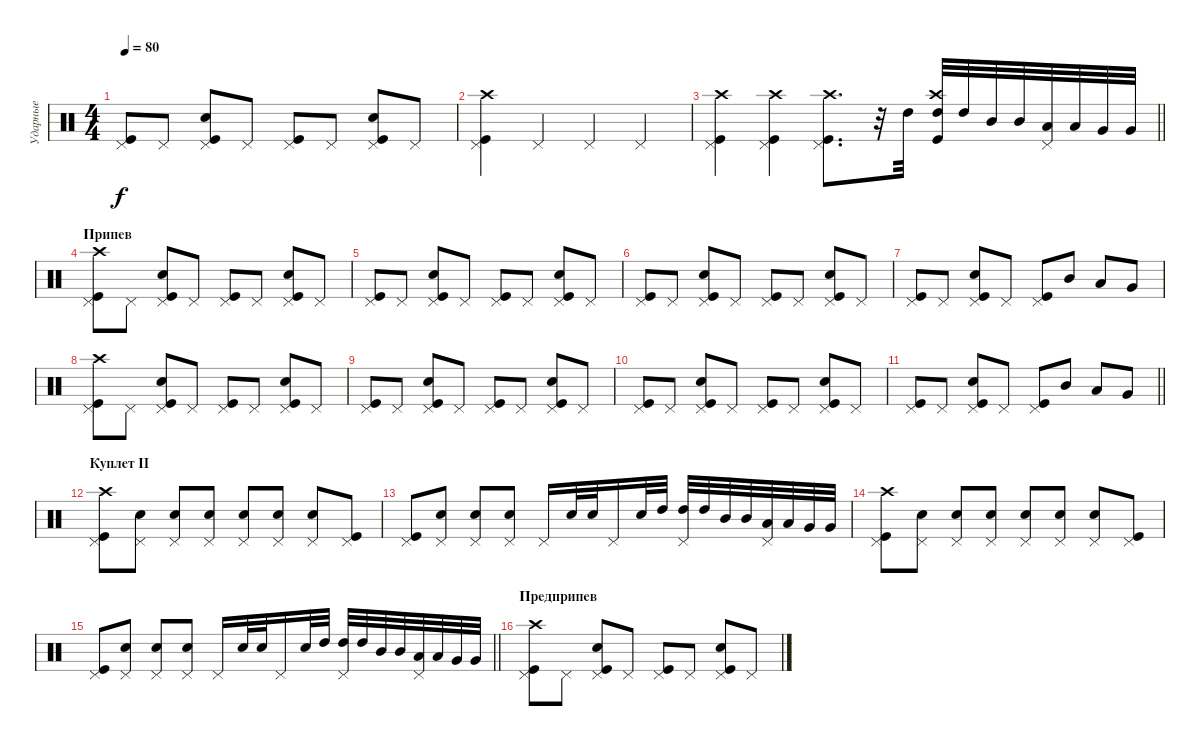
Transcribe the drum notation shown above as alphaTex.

\track ("Ударные" "Ударные") {instrument percussion}
\staff {score}
\articulation defaults
\ts (4 4)
\tempo 80
\clef neutral
\ks c
("Kick (hit)" "Pedal Hi-Hat (hit)").8{dy f} "Pedal Hi-Hat (hit)".8 ("Kick (hit)" "Snare (hit) 2" "Pedal Hi-Hat (hit)").8 "Pedal Hi-Hat (hit)".8 ("Kick (hit)" "Pedal Hi-Hat (hit)").8 "Pedal Hi-Hat (hit)".8 ("Kick (hit)" "Snare (hit) 2" "Pedal Hi-Hat (hit)").8 "Pedal Hi-Hat (hit)".8 |
("Kick (hit)" "Crash high (hit)" "Pedal Hi-Hat (hit)").4 "Pedal Hi-Hat (hit)".4 "Pedal Hi-Hat (hit)".4 "Pedal Hi-Hat (hit)".4 |
\barLineRight lightlight
("Kick (hit)" "Pedal Hi-Hat (hit)" "Crash high (hit)").4 ("Kick (hit)" "Pedal Hi-Hat (hit)" "Crash high (hit)").4 ("Kick (hit)" "Pedal Hi-Hat (hit)" "Crash high (hit)").8{d} r.32 "High Tom (hit)".32 ("Kick (hit)" "High Tom (hit)" "Crash high (hit)").32 "High Tom (hit)".32 "Mid Tom (hit)".32 "Mid Tom (hit)".32 ("Low Tom (hit)" "Pedal Hi-Hat (hit)").32 "Low Tom (hit)".32 "Very Low Tom (hit)".32 "Very Low Tom (hit)".32 |
\section ("" "Припев")
("Kick (hit)" "Crash high (hit)" "Pedal Hi-Hat (hit)").8 "Pedal Hi-Hat (hit)".8 ("Kick (hit)" "Snare (hit) 2" "Pedal Hi-Hat (hit)").8 "Pedal Hi-Hat (hit)".8 ("Kick (hit)" "Pedal Hi-Hat (hit)").8 "Pedal Hi-Hat (hit)".8 ("Kick (hit)" "Snare (hit) 2" "Pedal Hi-Hat (hit)").8 "Pedal Hi-Hat (hit)".8 |
("Kick (hit)" "Pedal Hi-Hat (hit)").8 "Pedal Hi-Hat (hit)".8 ("Kick (hit)" "Snare (hit) 2" "Pedal Hi-Hat (hit)").8 "Pedal Hi-Hat (hit)".8 ("Kick (hit)" "Pedal Hi-Hat (hit)").8 "Pedal Hi-Hat (hit)".8 ("Kick (hit)" "Snare (hit) 2" "Pedal Hi-Hat (hit)").8 "Pedal Hi-Hat (hit)".8 |
("Kick (hit)" "Pedal Hi-Hat (hit)").8 "Pedal Hi-Hat (hit)".8 ("Kick (hit)" "Snare (hit) 2" "Pedal Hi-Hat (hit)").8 "Pedal Hi-Hat (hit)".8 ("Kick (hit)" "Pedal Hi-Hat (hit)").8 "Pedal Hi-Hat (hit)".8 ("Kick (hit)" "Snare (hit) 2" "Pedal Hi-Hat (hit)").8 "Pedal Hi-Hat (hit)".8 |
("Kick (hit)" "Pedal Hi-Hat (hit)").8 "Pedal Hi-Hat (hit)".8 ("Kick (hit)" "Snare (hit) 2" "Pedal Hi-Hat (hit)").8 "Pedal Hi-Hat (hit)".8 ("Kick (hit)" "Pedal Hi-Hat (hit)").8 "Mid Tom (hit)".8 "Low Tom (hit)".8 "Very Low Tom (hit)".8 |
("Kick (hit)" "Crash high (hit)" "Pedal Hi-Hat (hit)").8 "Pedal Hi-Hat (hit)".8 ("Kick (hit)" "Snare (hit) 2" "Pedal Hi-Hat (hit)").8 "Pedal Hi-Hat (hit)".8 ("Kick (hit)" "Pedal Hi-Hat (hit)").8 "Pedal Hi-Hat (hit)".8 ("Kick (hit)" "Snare (hit) 2" "Pedal Hi-Hat (hit)").8 "Pedal Hi-Hat (hit)".8 |
("Kick (hit)" "Pedal Hi-Hat (hit)").8 "Pedal Hi-Hat (hit)".8 ("Kick (hit)" "Snare (hit) 2" "Pedal Hi-Hat (hit)").8 "Pedal Hi-Hat (hit)".8 ("Kick (hit)" "Pedal Hi-Hat (hit)").8 "Pedal Hi-Hat (hit)".8 ("Kick (hit)" "Snare (hit) 2" "Pedal Hi-Hat (hit)").8 "Pedal Hi-Hat (hit)".8 |
("Kick (hit)" "Pedal Hi-Hat (hit)").8 "Pedal Hi-Hat (hit)".8 ("Kick (hit)" "Snare (hit) 2" "Pedal Hi-Hat (hit)").8 "Pedal Hi-Hat (hit)".8 ("Kick (hit)" "Pedal Hi-Hat (hit)").8 "Pedal Hi-Hat (hit)".8 ("Kick (hit)" "Snare (hit) 2" "Pedal Hi-Hat (hit)").8 "Pedal Hi-Hat (hit)".8 |
\barLineRight lightlight
("Kick (hit)" "Pedal Hi-Hat (hit)").8 "Pedal Hi-Hat (hit)".8 ("Kick (hit)" "Snare (hit) 2" "Pedal Hi-Hat (hit)").8 "Pedal Hi-Hat (hit)".8 ("Kick (hit)" "Pedal Hi-Hat (hit)").8 "Mid Tom (hit)".8 "Low Tom (hit)".8 "Very Low Tom (hit)".8 |
\section ("" "Куплет II")
("Kick (hit)" "Pedal Hi-Hat (hit)" "Crash high (hit)").8 ("Pedal Hi-Hat (hit)" "Snare (hit) 2").8 ("Pedal Hi-Hat (hit)" "Snare (hit) 2").8 ("Pedal Hi-Hat (hit)" "Snare (hit) 2").8 ("Pedal Hi-Hat (hit)" "Snare (hit) 2").8 ("Pedal Hi-Hat (hit)" "Snare (hit) 2").8 ("Pedal Hi-Hat (hit)" "Snare (hit) 2").8 ("Kick (hit)" "Pedal Hi-Hat (hit)").8 |
("Kick (hit)" "Pedal Hi-Hat (hit)").8 ("Pedal Hi-Hat (hit)" "Snare (hit) 2").8 ("Pedal Hi-Hat (hit)" "Snare (hit) 2").8 ("Pedal Hi-Hat (hit)" "Snare (hit) 2").8 "Pedal Hi-Hat (hit)".16 "Snare (hit) 2".32 "Snare (hit) 2".32 "Pedal Hi-Hat (hit)".16 "Snare (hit) 2".32 "High Tom (hit)".32 ("High Tom (hit)" "Pedal Hi-Hat (hit)").32 "High Tom (hit)".32 "Mid Tom (hit)".32 "Mid Tom (hit)".32 ("Low Tom (hit)" "Pedal Hi-Hat (hit)").32 "Low Tom (hit)".32 "Very Low Tom (hit)".32 "Very Low Tom (hit)".32 |
("Kick (hit)" "Pedal Hi-Hat (hit)" "Crash high (hit)").8 ("Pedal Hi-Hat (hit)" "Snare (hit) 2").8 ("Pedal Hi-Hat (hit)" "Snare (hit) 2").8 ("Pedal Hi-Hat (hit)" "Snare (hit) 2").8 ("Pedal Hi-Hat (hit)" "Snare (hit) 2").8 ("Pedal Hi-Hat (hit)" "Snare (hit) 2").8 ("Pedal Hi-Hat (hit)" "Snare (hit) 2").8 ("Kick (hit)" "Pedal Hi-Hat (hit)").8 |
\barLineRight lightlight
("Kick (hit)" "Pedal Hi-Hat (hit)").8 ("Pedal Hi-Hat (hit)" "Snare (hit) 2").8 ("Pedal Hi-Hat (hit)" "Snare (hit) 2").8 ("Pedal Hi-Hat (hit)" "Snare (hit) 2").8 "Pedal Hi-Hat (hit)".16 "Snare (hit) 2".32 "Snare (hit) 2".32 "Pedal Hi-Hat (hit)".16 "Snare (hit) 2".32 "High Tom (hit)".32 ("High Tom (hit)" "Pedal Hi-Hat (hit)").32 "High Tom (hit)".32 "Mid Tom (hit)".32 "Mid Tom (hit)".32 ("Low Tom (hit)" "Pedal Hi-Hat (hit)").32 "Low Tom (hit)".32 "Very Low Tom (hit)".32 "Very Low Tom (hit)".32 |
\section ("" "Предприпев")
("Kick (hit)" "Crash high (hit)" "Pedal Hi-Hat (hit)").8 "Pedal Hi-Hat (hit)".8 ("Kick (hit)" "Snare (hit) 2" "Pedal Hi-Hat (hit)").8 "Pedal Hi-Hat (hit)".8 ("Kick (hit)" "Pedal Hi-Hat (hit)").8 "Pedal Hi-Hat (hit)".8 ("Kick (hit)" "Snare (hit) 2" "Pedal Hi-Hat (hit)").8 "Pedal Hi-Hat (hit)".8
